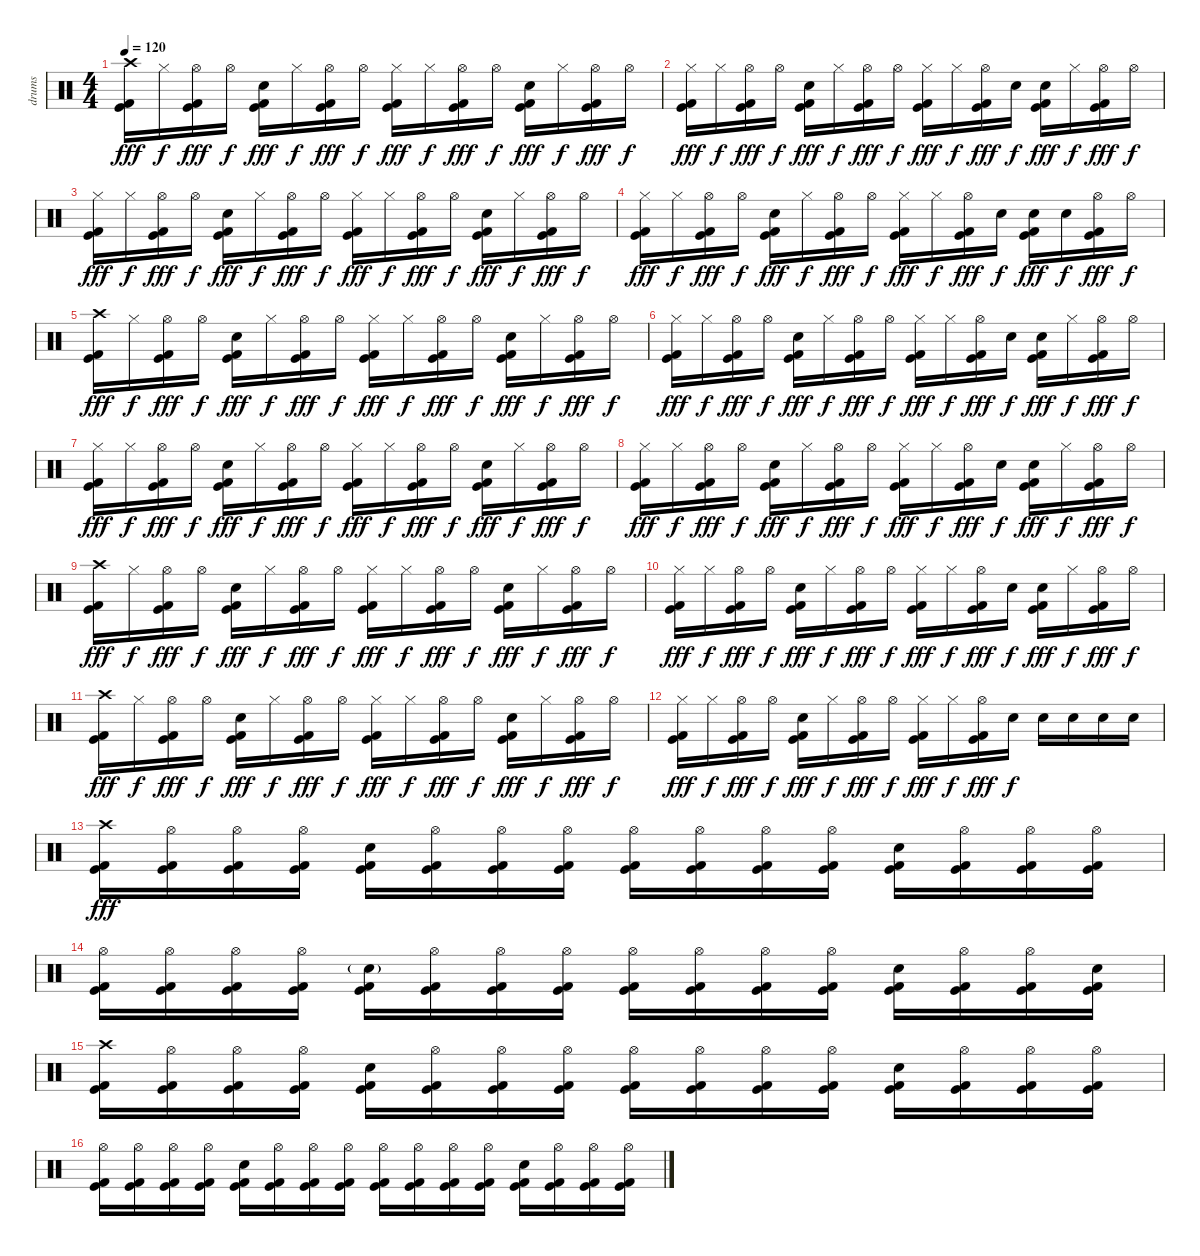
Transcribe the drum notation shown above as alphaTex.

\track ("drums" "drums") {instrument percussion}
\staff {score}
\articulation defaults
\ts (4 4)
\tempo 120
\clef neutral
\ks c
("Crash high (hit)" "Kick (hit)" "Kick (hit) 2").16{dy fff} "Hi-Hat (closed)".16{dy f} ("Hi-Hat (open)" "Kick (hit)" "Kick (hit) 2").16{dy fff} "Hi-Hat (open)".16{dy f} ("Electric Snare (hit)" "Kick (hit)" "Kick (hit) 2").16{dy fff} "Hi-Hat (closed)".16{dy f} ("Hi-Hat (open)" "Kick (hit)" "Kick (hit) 2").16{dy fff} "Hi-Hat (open)".16{dy f} ("Hi-Hat (closed)" "Kick (hit)" "Kick (hit) 2").16{dy fff} "Hi-Hat (closed)".16{dy f} ("Hi-Hat (open)" "Kick (hit)" "Kick (hit) 2").16{dy fff} "Hi-Hat (open)".16{dy f} ("Electric Snare (hit)" "Kick (hit)" "Kick (hit) 2").16{dy fff} "Hi-Hat (closed)".16{dy f} ("Hi-Hat (open)" "Kick (hit)" "Kick (hit) 2").16{dy fff} "Hi-Hat (open)".16{dy f} |
("Hi-Hat (closed)" "Kick (hit)" "Kick (hit) 2").16{dy fff} "Hi-Hat (closed)".16{dy f} ("Hi-Hat (open)" "Kick (hit)" "Kick (hit) 2").16{dy fff} "Hi-Hat (open)".16{dy f} ("Electric Snare (hit)" "Kick (hit)" "Kick (hit) 2").16{dy fff} "Hi-Hat (closed)".16{dy f} ("Hi-Hat (open)" "Kick (hit)" "Kick (hit) 2").16{dy fff} "Hi-Hat (open)".16{dy f} ("Hi-Hat (closed)" "Kick (hit)" "Kick (hit) 2").16{dy fff} "Hi-Hat (closed)".16{dy f} ("Hi-Hat (open)" "Kick (hit)" "Kick (hit) 2").16{dy fff} "Electric Snare (hit)".16{dy f} ("Electric Snare (hit)" "Kick (hit)" "Kick (hit) 2").16{dy fff} "Hi-Hat (closed)".16{dy f} ("Hi-Hat (open)" "Kick (hit)" "Kick (hit) 2").16{dy fff} "Hi-Hat (open)".16{dy f} |
("Hi-Hat (closed)" "Kick (hit)" "Kick (hit) 2").16{dy fff} "Hi-Hat (closed)".16{dy f} ("Hi-Hat (open)" "Kick (hit)" "Kick (hit) 2").16{dy fff} "Hi-Hat (open)".16{dy f} ("Electric Snare (hit)" "Kick (hit)" "Kick (hit) 2").16{dy fff} "Hi-Hat (closed)".16{dy f} ("Hi-Hat (open)" "Kick (hit)" "Kick (hit) 2").16{dy fff} "Hi-Hat (open)".16{dy f} ("Hi-Hat (closed)" "Kick (hit)" "Kick (hit) 2").16{dy fff} "Hi-Hat (closed)".16{dy f} ("Hi-Hat (open)" "Kick (hit)" "Kick (hit) 2").16{dy fff} "Hi-Hat (open)".16{dy f} ("Electric Snare (hit)" "Kick (hit)" "Kick (hit) 2").16{dy fff} "Hi-Hat (closed)".16{dy f} ("Hi-Hat (open)" "Kick (hit)" "Kick (hit) 2").16{dy fff} "Hi-Hat (open)".16{dy f} |
("Hi-Hat (closed)" "Kick (hit)" "Kick (hit) 2").16{dy fff} "Hi-Hat (closed)".16{dy f} ("Hi-Hat (open)" "Kick (hit)" "Kick (hit) 2").16{dy fff} "Hi-Hat (open)".16{dy f} ("Electric Snare (hit)" "Kick (hit)" "Kick (hit) 2").16{dy fff} "Hi-Hat (closed)".16{dy f} ("Hi-Hat (open)" "Kick (hit)" "Kick (hit) 2").16{dy fff} "Hi-Hat (open)".16{dy f} ("Hi-Hat (closed)" "Kick (hit)" "Kick (hit) 2").16{dy fff} "Hi-Hat (closed)".16{dy f} ("Hi-Hat (open)" "Kick (hit)" "Kick (hit) 2").16{dy fff} "Electric Snare (hit)".16{dy f} ("Electric Snare (hit)" "Kick (hit)" "Kick (hit) 2").16{dy fff} "Electric Snare (hit)".16{dy f} ("Hi-Hat (open)" "Kick (hit)" "Kick (hit) 2").16{dy fff} "Hi-Hat (open)".16{dy f} |
("Crash high (hit)" "Kick (hit)" "Kick (hit) 2").16{dy fff} "Hi-Hat (closed)".16{dy f} ("Hi-Hat (open)" "Kick (hit)" "Kick (hit) 2").16{dy fff} "Hi-Hat (open)".16{dy f} ("Electric Snare (hit)" "Kick (hit)" "Kick (hit) 2").16{dy fff} "Hi-Hat (closed)".16{dy f} ("Hi-Hat (open)" "Kick (hit)" "Kick (hit) 2").16{dy fff} "Hi-Hat (open)".16{dy f} ("Hi-Hat (closed)" "Kick (hit)" "Kick (hit) 2").16{dy fff} "Hi-Hat (closed)".16{dy f} ("Hi-Hat (open)" "Kick (hit)" "Kick (hit) 2").16{dy fff} "Hi-Hat (open)".16{dy f} ("Electric Snare (hit)" "Kick (hit)" "Kick (hit) 2").16{dy fff} "Hi-Hat (closed)".16{dy f} ("Hi-Hat (open)" "Kick (hit)" "Kick (hit) 2").16{dy fff} "Hi-Hat (open)".16{dy f} |
("Hi-Hat (closed)" "Kick (hit)" "Kick (hit) 2").16{dy fff} "Hi-Hat (closed)".16{dy f} ("Hi-Hat (open)" "Kick (hit)" "Kick (hit) 2").16{dy fff} "Hi-Hat (open)".16{dy f} ("Electric Snare (hit)" "Kick (hit)" "Kick (hit) 2").16{dy fff} "Hi-Hat (closed)".16{dy f} ("Hi-Hat (open)" "Kick (hit)" "Kick (hit) 2").16{dy fff} "Hi-Hat (open)".16{dy f} ("Hi-Hat (closed)" "Kick (hit)" "Kick (hit) 2").16{dy fff} "Hi-Hat (closed)".16{dy f} ("Hi-Hat (open)" "Kick (hit)" "Kick (hit) 2").16{dy fff} "Electric Snare (hit)".16{dy f} ("Electric Snare (hit)" "Kick (hit)" "Kick (hit) 2").16{dy fff} "Hi-Hat (closed)".16{dy f} ("Hi-Hat (open)" "Kick (hit)" "Kick (hit) 2").16{dy fff} "Hi-Hat (open)".16{dy f} |
("Hi-Hat (closed)" "Kick (hit)" "Kick (hit) 2").16{dy fff} "Hi-Hat (closed)".16{dy f} ("Hi-Hat (open)" "Kick (hit)" "Kick (hit) 2").16{dy fff} "Hi-Hat (open)".16{dy f} ("Electric Snare (hit)" "Kick (hit)" "Kick (hit) 2").16{dy fff} "Hi-Hat (closed)".16{dy f} ("Hi-Hat (open)" "Kick (hit)" "Kick (hit) 2").16{dy fff} "Hi-Hat (open)".16{dy f} ("Hi-Hat (closed)" "Kick (hit)" "Kick (hit) 2").16{dy fff} "Hi-Hat (closed)".16{dy f} ("Hi-Hat (open)" "Kick (hit)" "Kick (hit) 2").16{dy fff} "Hi-Hat (open)".16{dy f} ("Electric Snare (hit)" "Kick (hit)" "Kick (hit) 2").16{dy fff} "Hi-Hat (closed)".16{dy f} ("Hi-Hat (open)" "Kick (hit)" "Kick (hit) 2").16{dy fff} "Hi-Hat (open)".16{dy f} |
("Hi-Hat (closed)" "Kick (hit)" "Kick (hit) 2").16{dy fff} "Hi-Hat (closed)".16{dy f} ("Hi-Hat (open)" "Kick (hit)" "Kick (hit) 2").16{dy fff} "Hi-Hat (open)".16{dy f} ("Electric Snare (hit)" "Kick (hit)" "Kick (hit) 2").16{dy fff} "Hi-Hat (closed)".16{dy f} ("Hi-Hat (open)" "Kick (hit)" "Kick (hit) 2").16{dy fff} "Hi-Hat (open)".16{dy f} ("Hi-Hat (closed)" "Kick (hit)" "Kick (hit) 2").16{dy fff} "Hi-Hat (closed)".16{dy f} ("Hi-Hat (open)" "Kick (hit)" "Kick (hit) 2").16{dy fff} "Electric Snare (hit)".16{dy f} ("Electric Snare (hit)" "Kick (hit)" "Kick (hit) 2").16{dy fff} "Hi-Hat (closed)".16{dy f} ("Hi-Hat (open)" "Kick (hit)" "Kick (hit) 2").16{dy fff} "Hi-Hat (open)".16{dy f} |
("Crash high (hit)" "Kick (hit)" "Kick (hit) 2").16{dy fff} "Hi-Hat (closed)".16{dy f} ("Hi-Hat (open)" "Kick (hit)" "Kick (hit) 2").16{dy fff} "Hi-Hat (open)".16{dy f} ("Electric Snare (hit)" "Kick (hit)" "Kick (hit) 2").16{dy fff} "Hi-Hat (closed)".16{dy f} ("Hi-Hat (open)" "Kick (hit)" "Kick (hit) 2").16{dy fff} "Hi-Hat (open)".16{dy f} ("Hi-Hat (closed)" "Kick (hit)" "Kick (hit) 2").16{dy fff} "Hi-Hat (closed)".16{dy f} ("Hi-Hat (open)" "Kick (hit)" "Kick (hit) 2").16{dy fff} "Hi-Hat (open)".16{dy f} ("Electric Snare (hit)" "Kick (hit)" "Kick (hit) 2").16{dy fff} "Hi-Hat (closed)".16{dy f} ("Hi-Hat (open)" "Kick (hit)" "Kick (hit) 2").16{dy fff} "Hi-Hat (open)".16{dy f} |
("Hi-Hat (closed)" "Kick (hit)" "Kick (hit) 2").16{dy fff} "Hi-Hat (closed)".16{dy f} ("Hi-Hat (open)" "Kick (hit)" "Kick (hit) 2").16{dy fff} "Hi-Hat (open)".16{dy f} ("Electric Snare (hit)" "Kick (hit)" "Kick (hit) 2").16{dy fff} "Hi-Hat (closed)".16{dy f} ("Hi-Hat (open)" "Kick (hit)" "Kick (hit) 2").16{dy fff} "Hi-Hat (open)".16{dy f} ("Hi-Hat (closed)" "Kick (hit)" "Kick (hit) 2").16{dy fff} "Hi-Hat (closed)".16{dy f} ("Hi-Hat (open)" "Kick (hit)" "Kick (hit) 2").16{dy fff} "Electric Snare (hit)".16{dy f} ("Electric Snare (hit)" "Kick (hit)" "Kick (hit) 2").16{dy fff} "Hi-Hat (closed)".16{dy f} ("Hi-Hat (open)" "Kick (hit)" "Kick (hit) 2").16{dy fff} "Hi-Hat (open)".16{dy f} |
("Crash high (hit)" "Kick (hit)" "Kick (hit) 2").16{dy fff} "Hi-Hat (closed)".16{dy f} ("Hi-Hat (open)" "Kick (hit)" "Kick (hit) 2").16{dy fff} "Hi-Hat (open)".16{dy f} ("Electric Snare (hit)" "Kick (hit)" "Kick (hit) 2").16{dy fff} "Hi-Hat (closed)".16{dy f} ("Hi-Hat (open)" "Kick (hit)" "Kick (hit) 2").16{dy fff} "Hi-Hat (open)".16{dy f} ("Hi-Hat (closed)" "Kick (hit)" "Kick (hit) 2").16{dy fff} "Hi-Hat (closed)".16{dy f} ("Hi-Hat (open)" "Kick (hit)" "Kick (hit) 2").16{dy fff} "Hi-Hat (open)".16{dy f} ("Electric Snare (hit)" "Kick (hit)" "Kick (hit) 2").16{dy fff} "Hi-Hat (closed)".16{dy f} ("Hi-Hat (open)" "Kick (hit)" "Kick (hit) 2").16{dy fff} "Hi-Hat (open)".16{dy f} |
("Hi-Hat (closed)" "Kick (hit)" "Kick (hit) 2").16{dy fff} "Hi-Hat (closed)".16{dy f} ("Hi-Hat (open)" "Kick (hit)" "Kick (hit) 2").16{dy fff} "Hi-Hat (open)".16{dy f} ("Electric Snare (hit)" "Kick (hit)" "Kick (hit) 2").16{dy fff} "Hi-Hat (closed)".16{dy f} ("Hi-Hat (open)" "Kick (hit)" "Kick (hit) 2").16{dy fff} "Hi-Hat (open)".16{dy f} ("Hi-Hat (closed)" "Kick (hit)" "Kick (hit) 2").16{dy fff} "Hi-Hat (closed)".16{dy f} ("Hi-Hat (open)" "Kick (hit)" "Kick (hit) 2").16{dy fff} "Electric Snare (hit)".16{dy f} "Electric Snare (hit)".16 "Electric Snare (hit)".16 "Electric Snare (hit)".16 "Electric Snare (hit)".16 |
("Crash high (hit)" "Kick (hit)" "Kick (hit) 2").16{dy fff} ("Hi-Hat (open)" "Kick (hit)" "Kick (hit) 2").16 ("Hi-Hat (open)" "Kick (hit)" "Kick (hit) 2").16 ("Hi-Hat (open)" "Kick (hit)" "Kick (hit) 2").16 ("Electric Snare (hit)" "Kick (hit)" "Kick (hit) 2").16 ("Hi-Hat (open)" "Kick (hit)" "Kick (hit) 2").16 ("Hi-Hat (open)" "Kick (hit)" "Kick (hit) 2").16 ("Hi-Hat (open)" "Kick (hit)" "Kick (hit) 2").16 ("Hi-Hat (open)" "Kick (hit)" "Kick (hit) 2").16 ("Hi-Hat (open)" "Kick (hit)" "Kick (hit) 2").16 ("Hi-Hat (open)" "Kick (hit)" "Kick (hit) 2").16 ("Hi-Hat (open)" "Kick (hit)" "Kick (hit) 2").16 ("Electric Snare (hit)" "Kick (hit)" "Kick (hit) 2").16 ("Hi-Hat (open)" "Kick (hit)" "Kick (hit) 2").16 ("Hi-Hat (open)" "Kick (hit)" "Kick (hit) 2").16 ("Hi-Hat (open)" "Kick (hit)" "Kick (hit) 2").16 |
("Hi-Hat (open)" "Kick (hit)" "Kick (hit) 2").16 ("Hi-Hat (open)" "Kick (hit)" "Kick (hit) 2").16 ("Hi-Hat (open)" "Kick (hit)" "Kick (hit) 2").16 ("Hi-Hat (open)" "Kick (hit)" "Kick (hit) 2").16 ("Electric Snare (hit)"{g} "Kick (hit)" "Kick (hit) 2").16 ("Hi-Hat (open)" "Kick (hit)" "Kick (hit) 2").16 ("Hi-Hat (open)" "Kick (hit)" "Kick (hit) 2").16 ("Hi-Hat (open)" "Kick (hit)" "Kick (hit) 2").16 ("Hi-Hat (open)" "Kick (hit)" "Kick (hit) 2").16 ("Hi-Hat (open)" "Kick (hit)" "Kick (hit) 2").16 ("Hi-Hat (open)" "Kick (hit)" "Kick (hit) 2").16 ("Hi-Hat (open)" "Kick (hit)" "Kick (hit) 2").16 ("Electric Snare (hit)" "Kick (hit)" "Kick (hit) 2").16 ("Hi-Hat (open)" "Kick (hit)" "Kick (hit) 2").16 ("Hi-Hat (open)" "Kick (hit)" "Kick (hit) 2").16 ("Electric Snare (hit)" "Kick (hit)" "Kick (hit) 2").16 |
("Crash high (hit)" "Kick (hit)" "Kick (hit) 2").16 ("Hi-Hat (open)" "Kick (hit)" "Kick (hit) 2").16 ("Hi-Hat (open)" "Kick (hit)" "Kick (hit) 2").16 ("Hi-Hat (open)" "Kick (hit)" "Kick (hit) 2").16 ("Electric Snare (hit)" "Kick (hit)" "Kick (hit) 2").16 ("Hi-Hat (open)" "Kick (hit)" "Kick (hit) 2").16 ("Hi-Hat (open)" "Kick (hit)" "Kick (hit) 2").16 ("Hi-Hat (open)" "Kick (hit)" "Kick (hit) 2").16 ("Hi-Hat (open)" "Kick (hit)" "Kick (hit) 2").16 ("Hi-Hat (open)" "Kick (hit)" "Kick (hit) 2").16 ("Hi-Hat (open)" "Kick (hit)" "Kick (hit) 2").16 ("Hi-Hat (open)" "Kick (hit)" "Kick (hit) 2").16 ("Electric Snare (hit)" "Kick (hit)" "Kick (hit) 2").16 ("Hi-Hat (open)" "Kick (hit)" "Kick (hit) 2").16 ("Hi-Hat (open)" "Kick (hit)" "Kick (hit) 2").16 ("Hi-Hat (open)" "Kick (hit)" "Kick (hit) 2").16 |
("Hi-Hat (open)" "Kick (hit)" "Kick (hit) 2").16 ("Hi-Hat (open)" "Kick (hit)" "Kick (hit) 2").16 ("Hi-Hat (open)" "Kick (hit)" "Kick (hit) 2").16 ("Hi-Hat (open)" "Kick (hit)" "Kick (hit) 2").16 ("Electric Snare (hit)" "Kick (hit)" "Kick (hit) 2").16 ("Hi-Hat (open)" "Kick (hit)" "Kick (hit) 2").16 ("Hi-Hat (open)" "Kick (hit)" "Kick (hit) 2").16 ("Hi-Hat (open)" "Kick (hit)" "Kick (hit) 2").16 ("Hi-Hat (open)" "Kick (hit)" "Kick (hit) 2").16 ("Hi-Hat (open)" "Kick (hit)" "Kick (hit) 2").16 ("Hi-Hat (open)" "Kick (hit)" "Kick (hit) 2").16 ("Hi-Hat (open)" "Kick (hit)" "Kick (hit) 2").16 ("Electric Snare (hit)" "Kick (hit)" "Kick (hit) 2").16 ("Hi-Hat (open)" "Kick (hit)" "Kick (hit) 2").16 ("Hi-Hat (open)" "Kick (hit)" "Kick (hit) 2").16 ("Hi-Hat (open)" "Kick (hit)" "Kick (hit) 2").16
